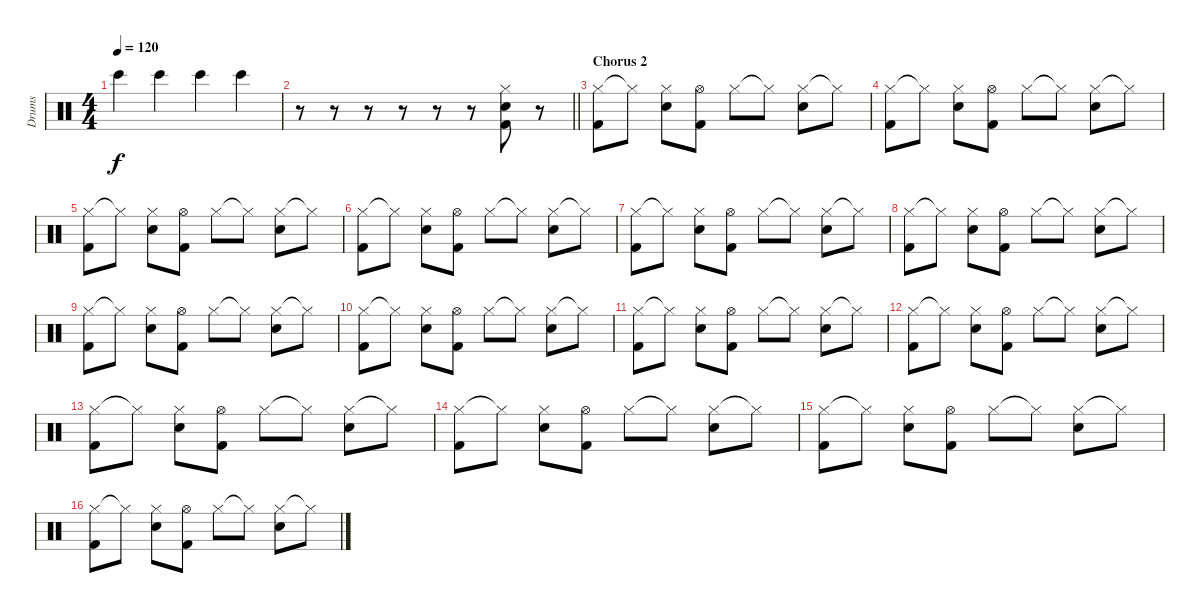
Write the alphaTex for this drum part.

\track ("Drums" "Drums") {instrument percussion}
\staff {score}
\articulation defaults
\ts (4 4)
\tempo 120
\clef neutral
\ks c "Bongo High (hit)".4{dy f} "Bongo High (hit)".4 "Bongo High (hit)".4 "Bongo High (hit)".4
|
\barLineRight lightlight
r.8 r.8 r.8 r.8 r.8 r.8 ("Hi-Hat (closed)" "Electric Snare (hit)" "Kick (hit) 2").8 r.8 |
\section ("" "Chorus 2")
("Hi-Hat (closed)" "Kick (hit) 2").8 "Hi-Hat (closed)"{t}.8 ("Hi-Hat (closed)" "Electric Snare (hit)").8 ("Hi-Hat (open)" "Kick (hit) 2").8 "Hi-Hat (closed)".8 "Hi-Hat (closed)"{t}.8 ("Hi-Hat (closed)" "Electric Snare (hit)").8 "Hi-Hat (closed)"{t}.8 |
("Hi-Hat (closed)" "Kick (hit) 2").8 "Hi-Hat (closed)"{t}.8 ("Hi-Hat (closed)" "Electric Snare (hit)").8 ("Hi-Hat (open)" "Kick (hit) 2").8 "Hi-Hat (closed)".8 "Hi-Hat (closed)"{t}.8 ("Hi-Hat (closed)" "Electric Snare (hit)").8 "Hi-Hat (closed)"{t}.8 |
("Hi-Hat (closed)" "Kick (hit) 2").8 "Hi-Hat (closed)"{t}.8 ("Hi-Hat (closed)" "Electric Snare (hit)").8 ("Hi-Hat (open)" "Kick (hit) 2").8 "Hi-Hat (closed)".8 "Hi-Hat (closed)"{t}.8 ("Hi-Hat (closed)" "Electric Snare (hit)").8 "Hi-Hat (closed)"{t}.8 |
("Hi-Hat (closed)" "Kick (hit) 2").8 "Hi-Hat (closed)"{t}.8 ("Hi-Hat (closed)" "Electric Snare (hit)").8 ("Hi-Hat (open)" "Kick (hit) 2").8 "Hi-Hat (closed)".8 "Hi-Hat (closed)"{t}.8 ("Hi-Hat (closed)" "Electric Snare (hit)").8 "Hi-Hat (closed)"{t}.8 |
("Hi-Hat (closed)" "Kick (hit) 2").8 "Hi-Hat (closed)"{t}.8 ("Hi-Hat (closed)" "Electric Snare (hit)").8 ("Hi-Hat (open)" "Kick (hit) 2").8 "Hi-Hat (closed)".8 "Hi-Hat (closed)"{t}.8 ("Hi-Hat (closed)" "Electric Snare (hit)").8 "Hi-Hat (closed)"{t}.8 |
("Hi-Hat (closed)" "Kick (hit) 2").8 "Hi-Hat (closed)"{t}.8 ("Hi-Hat (closed)" "Electric Snare (hit)").8 ("Hi-Hat (open)" "Kick (hit) 2").8 "Hi-Hat (closed)".8 "Hi-Hat (closed)"{t}.8 ("Hi-Hat (closed)" "Electric Snare (hit)").8 "Hi-Hat (closed)"{t}.8 |
("Hi-Hat (closed)" "Kick (hit) 2").8 "Hi-Hat (closed)"{t}.8 ("Hi-Hat (closed)" "Electric Snare (hit)").8 ("Hi-Hat (open)" "Kick (hit) 2").8 "Hi-Hat (closed)".8 "Hi-Hat (closed)"{t}.8 ("Hi-Hat (closed)" "Electric Snare (hit)").8 "Hi-Hat (closed)"{t}.8 |
("Hi-Hat (closed)" "Kick (hit) 2").8 "Hi-Hat (closed)"{t}.8 ("Hi-Hat (closed)" "Electric Snare (hit)").8 ("Hi-Hat (open)" "Kick (hit) 2").8 "Hi-Hat (closed)".8 "Hi-Hat (closed)"{t}.8 ("Hi-Hat (closed)" "Electric Snare (hit)").8 "Hi-Hat (closed)"{t}.8 |
("Hi-Hat (closed)" "Kick (hit) 2").8 "Hi-Hat (closed)"{t}.8 ("Hi-Hat (closed)" "Electric Snare (hit)").8 ("Hi-Hat (open)" "Kick (hit) 2").8 "Hi-Hat (closed)".8 "Hi-Hat (closed)"{t}.8 ("Hi-Hat (closed)" "Electric Snare (hit)").8 "Hi-Hat (closed)"{t}.8 |
("Hi-Hat (closed)" "Kick (hit) 2").8 "Hi-Hat (closed)"{t}.8 ("Hi-Hat (closed)" "Electric Snare (hit)").8 ("Hi-Hat (open)" "Kick (hit) 2").8 "Hi-Hat (closed)".8 "Hi-Hat (closed)"{t}.8 ("Hi-Hat (closed)" "Electric Snare (hit)").8 "Hi-Hat (closed)"{t}.8 |
("Hi-Hat (closed)" "Kick (hit) 2").8 "Hi-Hat (closed)"{t}.8 ("Hi-Hat (closed)" "Electric Snare (hit)").8 ("Hi-Hat (open)" "Kick (hit) 2").8 "Hi-Hat (closed)".8 "Hi-Hat (closed)"{t}.8 ("Hi-Hat (closed)" "Electric Snare (hit)").8 "Hi-Hat (closed)"{t}.8 |
("Hi-Hat (closed)" "Kick (hit) 2").8 "Hi-Hat (closed)"{t}.8 ("Hi-Hat (closed)" "Electric Snare (hit)").8 ("Hi-Hat (open)" "Kick (hit) 2").8 "Hi-Hat (closed)".8 "Hi-Hat (closed)"{t}.8 ("Hi-Hat (closed)" "Electric Snare (hit)").8 "Hi-Hat (closed)"{t}.8 |
("Hi-Hat (closed)" "Kick (hit) 2").8 "Hi-Hat (closed)"{t}.8 ("Hi-Hat (closed)" "Electric Snare (hit)").8 ("Hi-Hat (open)" "Kick (hit) 2").8 "Hi-Hat (closed)".8 "Hi-Hat (closed)"{t}.8 ("Hi-Hat (closed)" "Electric Snare (hit)").8 "Hi-Hat (closed)"{t}.8 |
("Hi-Hat (closed)" "Kick (hit) 2").8 "Hi-Hat (closed)"{t}.8 ("Hi-Hat (closed)" "Electric Snare (hit)").8 ("Hi-Hat (open)" "Kick (hit) 2").8 "Hi-Hat (closed)".8 "Hi-Hat (closed)"{t}.8 ("Hi-Hat (closed)" "Electric Snare (hit)").8 "Hi-Hat (closed)"{t}.8
